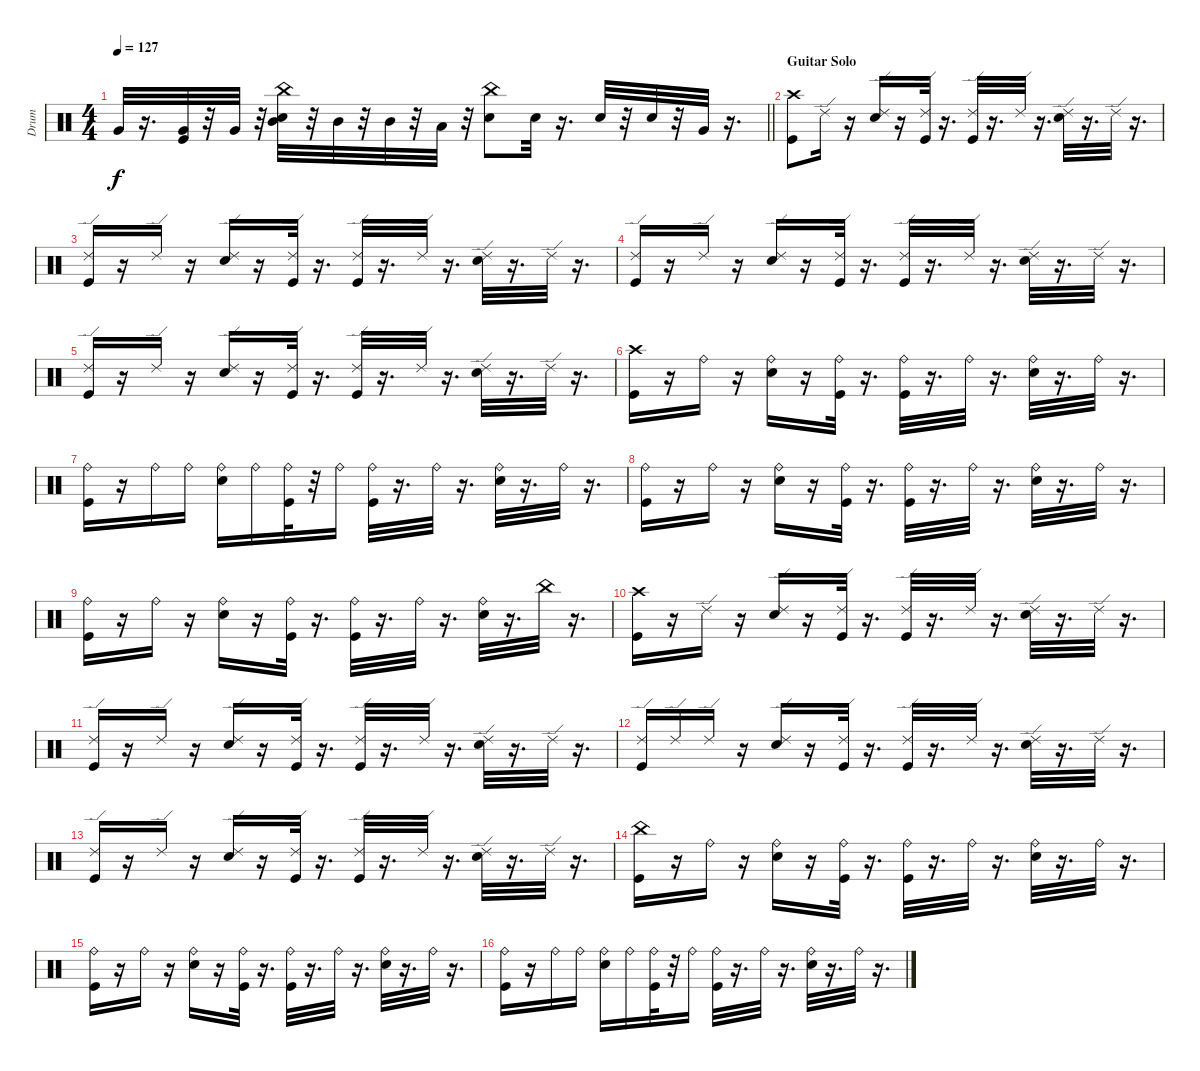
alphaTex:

\track ("Drum" "Drum") {instrument percussion}
\staff {score}
\articulation defaults
\ts (4 4)
\tempo 127
\clef neutral
\barLineRight lightlight
\ks c "Very Low Tom (hit)".32{dy f}
r.16{d} ("Very Low Tom (hit)" "Kick (hit)").32{volume 16} r.32 "Very Low Tom (hit)".32 r.32 ("Mid Tom (hit)" "China (hit)" "Snare (hit) 2").32 r.32 "Mid Tom (hit)".32 r.32 "Mid Tom (hit)".32 r.32 "Low Tom (hit)".32 r.32 ("Snare (hit) 2" "China (hit)").8 "Snare (hit) 2".32 r.16{d} "Snare (hit) 2".32 r.32 "Snare (hit) 2".32 r.32 "Very Low Tom (hit)".32 r.16{d} |
\section ("" "Guitar Solo")
("Crash high (hit)" "Kick (hit)").8 "Ride (edge) 2".16 r.16 ("Snare (hit) 2" "Ride (edge) 2").16 r.16 ("Kick (hit)" "Ride (edge) 2").32 r.16{d} ("Ride (edge) 2" "Kick (hit)").32 r.16{d} "Ride (edge) 2".32 r.16{d} ("Snare (hit) 2" "Ride (edge) 2").32 r.16{d} "Ride (edge) 2".32 r.16{d} |
("Kick (hit)" "Ride (edge) 2").16 r.16 "Ride (edge) 2".16 r.16 ("Snare (hit) 2" "Ride (edge) 2").16 r.16 ("Kick (hit)" "Ride (edge) 2").32 r.16{d} ("Ride (edge) 2" "Kick (hit)").32 r.16{d} "Ride (edge) 2".32 r.16{d} ("Snare (hit) 2" "Ride (edge) 2").32 r.16{d} "Ride (edge) 2".32 r.16{d} |
("Kick (hit)" "Ride (edge) 2").16 r.16 "Ride (edge) 2".16 r.16 ("Snare (hit) 2" "Ride (edge) 2").16 r.16 ("Kick (hit)" "Ride (edge) 2").32 r.16{d} ("Ride (edge) 2" "Kick (hit)").32 r.16{d} "Ride (edge) 2".32 r.16{d} ("Snare (hit) 2" "Ride (edge) 2").32 r.16{d} "Ride (edge) 2".32 r.16{d} |
("Kick (hit)" "Ride (edge) 2").16 r.16 "Ride (edge) 2".16 r.16 ("Snare (hit) 2" "Ride (edge) 2").16 r.16 ("Kick (hit)" "Ride (edge) 2").32 r.16{d} ("Ride (edge) 2" "Kick (hit)").32 r.16{d} "Ride (edge) 2".32 r.16{d} ("Snare (hit) 2" "Ride (edge) 2").32 r.16{d} "Ride (edge) 2".32 r.16{d} |
("Kick (hit)" "Crash high (hit)").16 r.16 "Ride (bell)".16 r.16 ("Snare (hit) 2" "Ride (bell)").16 r.16 ("Kick (hit)" "Ride (bell)").32 r.16{d} ("Ride (bell)" "Kick (hit)").32 r.16{d} "Ride (bell)".32 r.16{d} ("Snare (hit) 2" "Ride (bell)").32 r.16{d} "Ride (bell)".32 r.16{d} |
("Kick (hit)" "Ride (bell)").16 r.16 "Ride (bell)".16 "Ride (bell)".16 ("Snare (hit) 2" "Ride (bell)").16 "Ride (bell)".16 ("Kick (hit)" "Ride (bell)").32 r.32 "Ride (bell)".16 ("Ride (bell)" "Kick (hit)").32 r.16{d} "Ride (bell)".32 r.16{d} ("Snare (hit) 2" "Ride (bell)").32 r.16{d} "Ride (bell)".32 r.16{d} |
("Kick (hit)" "Ride (bell)").16 r.16 "Ride (bell)".16 r.16 ("Snare (hit) 2" "Ride (bell)").16 r.16 ("Kick (hit)" "Ride (bell)").32 r.16{d} ("Ride (bell)" "Kick (hit)").32 r.16{d} "Ride (bell)".32 r.16{d} ("Snare (hit) 2" "Ride (bell)").32 r.16{d} "Ride (bell)".32 r.16{d} |
("Kick (hit)" "Ride (bell)").16 r.16 "Ride (bell)".16 r.16 ("Snare (hit) 2" "Ride (bell)").16 r.16 ("Kick (hit)" "Ride (bell)").32 r.16{d} ("Ride (bell)" "Kick (hit)").32 r.16{d} "Ride (bell)".32 r.16{d} ("Snare (hit) 2" "Ride (bell)").32 r.16{d} "China (hit)".32 r.16{d} |
("Kick (hit)" "Crash high (hit)").16 r.16 "Ride (edge) 2".16 r.16 ("Snare (hit) 2" "Ride (edge) 2").16 r.16 ("Kick (hit)" "Ride (edge) 2").32 r.16{d} ("Ride (edge) 2" "Kick (hit)").32 r.16{d} "Ride (edge) 2".32 r.16{d} ("Snare (hit) 2" "Ride (edge) 2").32 r.16{d} "Ride (edge) 2".32 r.16{d} |
("Kick (hit)" "Ride (edge) 2").16 r.16 "Ride (edge) 2".16 r.16 ("Snare (hit) 2" "Ride (edge) 2").16 r.16 ("Kick (hit)" "Ride (edge) 2").32 r.16{d} ("Ride (edge) 2" "Kick (hit)").32 r.16{d} "Ride (edge) 2".32 r.16{d} ("Snare (hit) 2" "Ride (edge) 2").32 r.16{d} "Ride (edge) 2".32 r.16{d} |
("Kick (hit)" "Ride (edge) 2").16 "Ride (edge) 2".16 "Ride (edge) 2".16 r.16 ("Snare (hit) 2" "Ride (edge) 2").16 r.16 ("Kick (hit)" "Ride (edge) 2").32 r.16{d} ("Ride (edge) 2" "Kick (hit)").32 r.16{d} "Ride (edge) 2".32 r.16{d} ("Snare (hit) 2" "Ride (edge) 2").32 r.16{d} "Ride (edge) 2".32 r.16{d} |
("Kick (hit)" "Ride (edge) 2").16 r.16 "Ride (edge) 2".16 r.16 ("Snare (hit) 2" "Ride (edge) 2").16 r.16 ("Kick (hit)" "Ride (edge) 2").32 r.16{d} ("Ride (edge) 2" "Kick (hit)").32 r.16{d} "Ride (edge) 2".32 r.16{d} ("Snare (hit) 2" "Ride (edge) 2").32 r.16{d} "Ride (edge) 2".32 r.16{d} |
("Kick (hit)" "China (hit)").16 r.16 "Ride (bell)".16 r.16 ("Snare (hit) 2" "Ride (bell)").16 r.16 ("Kick (hit)" "Ride (bell)").32 r.16{d} ("Ride (bell)" "Kick (hit)").32 r.16{d} "Ride (bell)".32 r.16{d} ("Snare (hit) 2" "Ride (bell)").32 r.16{d} "Ride (bell)".32 r.16{d} |
("Kick (hit)" "Ride (bell)").16 r.16 "Ride (bell)".16 r.16 ("Snare (hit) 2" "Ride (bell)").16 r.16 ("Kick (hit)" "Ride (bell)").32 r.16{d} ("Ride (bell)" "Kick (hit)").32 r.16{d} "Ride (bell)".32 r.16{d} ("Snare (hit) 2" "Ride (bell)").32 r.16{d} "Ride (bell)".32 r.16{d} |
("Kick (hit)" "Ride (bell)").16 r.16 "Ride (bell)".16 "Ride (bell)".16 ("Snare (hit) 2" "Ride (bell)").16 "Ride (bell)".16 ("Kick (hit)" "Ride (bell)").32 r.32 "Ride (bell)".16 ("Ride (bell)" "Kick (hit)").32 r.16{d} "Ride (bell)".32 r.16{d} ("Snare (hit) 2" "Ride (bell)").32 r.16{d} "Ride (bell)".32 r.16{d}
